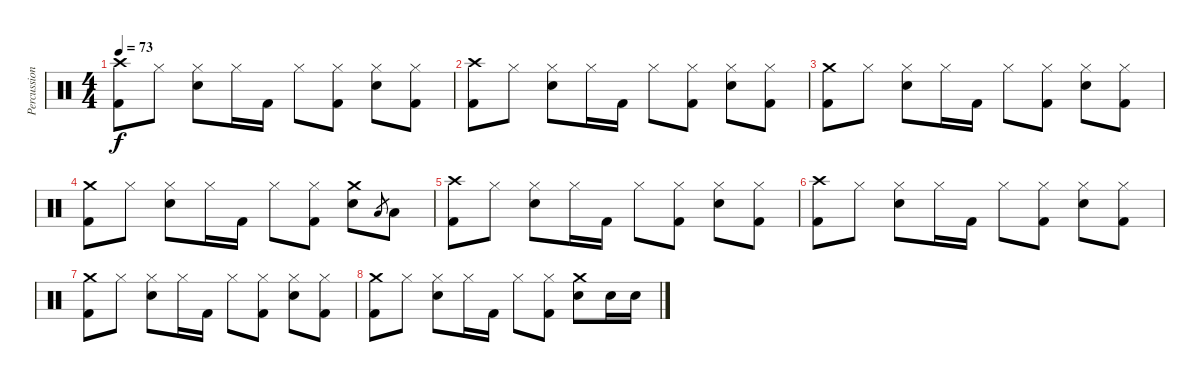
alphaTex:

\track ("Percussion" "Percussion") {instrument percussion}
\staff {score}
\articulation defaults
\ts (4 4)
\tempo 73
\clef neutral
\ks c
("Crash high (hit)" "Kick (hit) 2").8{dy f} "Hi-Hat (closed)".8 ("Hi-Hat (closed)" "Electric Snare (hit)").8 "Hi-Hat (closed)".16 "Kick (hit) 2".16 "Hi-Hat (closed)".8 ("Hi-Hat (closed)" "Kick (hit) 2").8 ("Hi-Hat (closed)" "Electric Snare (hit)").8 ("Hi-Hat (closed)" "Kick (hit) 2").8 |
("Crash high (hit)" "Kick (hit) 2").8 "Hi-Hat (closed)".8 ("Hi-Hat (closed)" "Electric Snare (hit)").8 "Hi-Hat (closed)".16 "Kick (hit) 2".16 "Hi-Hat (closed)".8 ("Hi-Hat (closed)" "Kick (hit) 2").8 ("Hi-Hat (closed)" "Electric Snare (hit)").8 ("Hi-Hat (closed)" "Kick (hit) 2").8 |
("Crash medium (hit)" "Kick (hit) 2").8 "Hi-Hat (closed)".8 ("Hi-Hat (closed)" "Electric Snare (hit)").8 "Hi-Hat (closed)".16 "Kick (hit) 2".16 "Hi-Hat (closed)".8 ("Hi-Hat (closed)" "Kick (hit) 2").8 ("Hi-Hat (closed)" "Electric Snare (hit)").8 ("Hi-Hat (closed)" "Kick (hit) 2").8 |
("Crash medium (hit)" "Kick (hit) 2").8 "Hi-Hat (closed)".8 ("Hi-Hat (closed)" "Electric Snare (hit)").8 "Hi-Hat (closed)".16 "Kick (hit) 2".16 "Hi-Hat (closed)".8 ("Hi-Hat (closed)" "Kick (hit) 2").8 ("Crash medium (hit)" "Electric Snare (hit)").8 "Low Floor Tom (hit)".8{gr} "Low Floor Tom (hit)".8 |
("Crash high (hit)" "Kick (hit) 2").8 "Hi-Hat (closed)".8 ("Hi-Hat (closed)" "Electric Snare (hit)").8 "Hi-Hat (closed)".16 "Kick (hit) 2".16 "Hi-Hat (closed)".8 ("Hi-Hat (closed)" "Kick (hit) 2").8 ("Hi-Hat (closed)" "Electric Snare (hit)").8 ("Hi-Hat (closed)" "Kick (hit) 2").8 |
("Crash high (hit)" "Kick (hit) 2").8 "Hi-Hat (closed)".8 ("Hi-Hat (closed)" "Electric Snare (hit)").8 "Hi-Hat (closed)".16 "Kick (hit) 2".16 "Hi-Hat (closed)".8 ("Hi-Hat (closed)" "Kick (hit) 2").8 ("Hi-Hat (closed)" "Electric Snare (hit)").8 ("Hi-Hat (closed)" "Kick (hit) 2").8 |
("Crash medium (hit)" "Kick (hit) 2").8 "Hi-Hat (closed)".8 ("Hi-Hat (closed)" "Electric Snare (hit)").8 "Hi-Hat (closed)".16 "Kick (hit) 2".16 "Hi-Hat (closed)".8 ("Hi-Hat (closed)" "Kick (hit) 2").8 ("Hi-Hat (closed)" "Electric Snare (hit)").8 ("Hi-Hat (closed)" "Kick (hit) 2").8 |
("Crash medium (hit)" "Kick (hit) 2").8 "Hi-Hat (closed)".8 ("Hi-Hat (closed)" "Electric Snare (hit)").8 "Hi-Hat (closed)".16 "Kick (hit) 2".16 "Hi-Hat (closed)".8 ("Hi-Hat (closed)" "Kick (hit) 2").8 ("Crash medium (hit)" "Electric Snare (hit)").8 "Electric Snare (hit)".16 "Electric Snare (hit)".16
